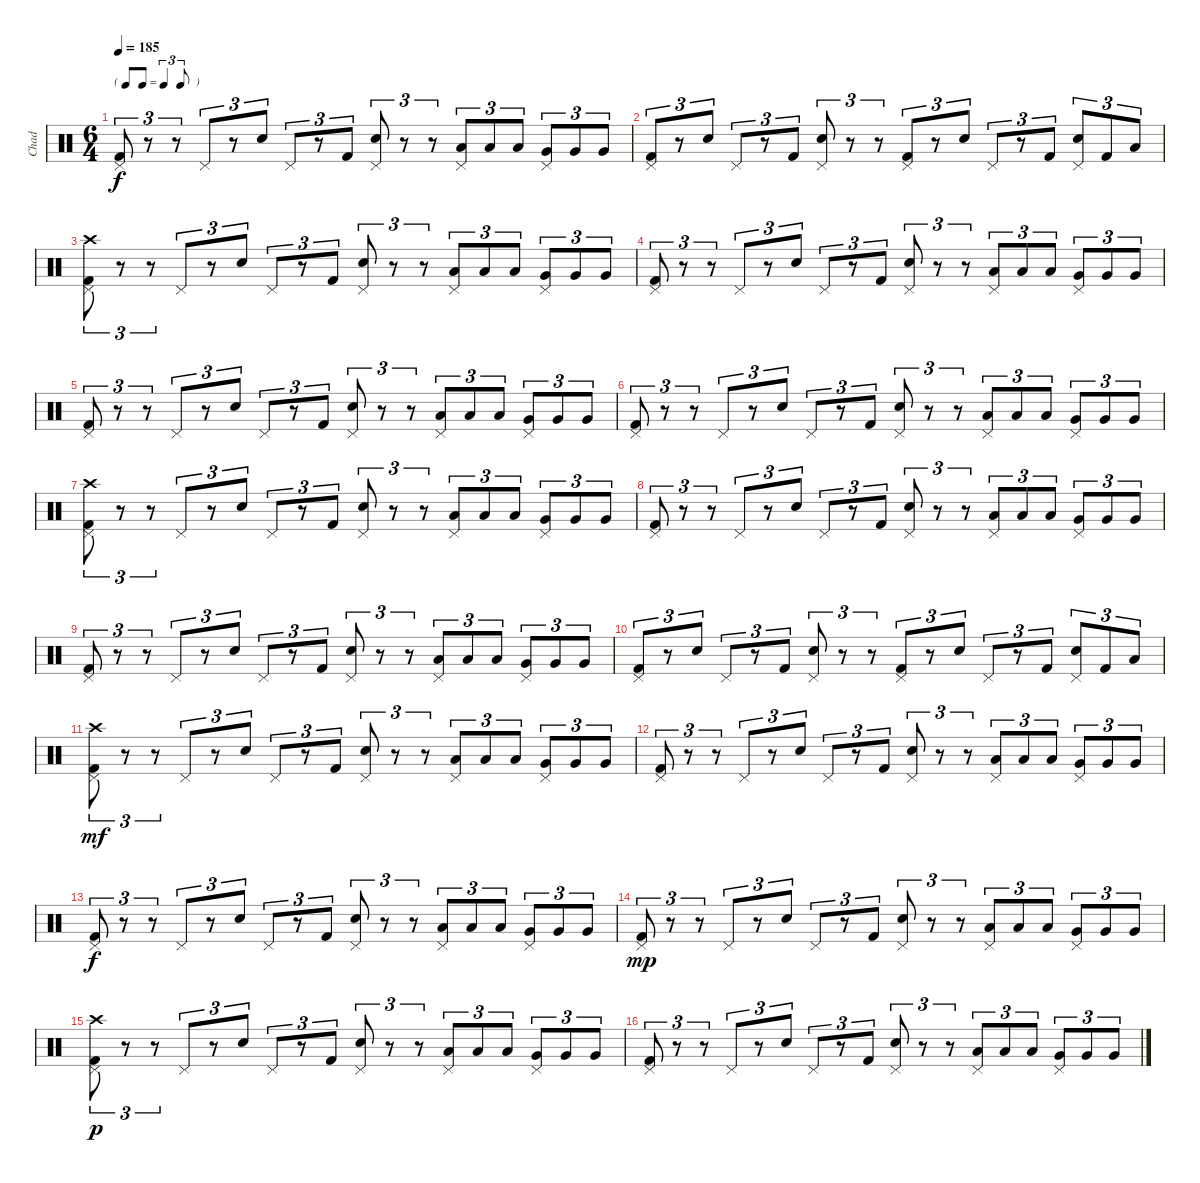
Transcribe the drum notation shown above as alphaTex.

\track ("Chad" "Chad") {instrument percussion}
\staff {score}
\articulation defaults
\ts (6 4)
\tf triplet8th
\tempo 185
\clef neutral
\ks c
("Kick (hit) 2" "Pedal Hi-Hat (hit)").8{tu (3 2) dy f} r.8{tu (3 2)} r.8{tu (3 2)} "Pedal Hi-Hat (hit)".8{tu (3 2)} r.8{tu (3 2)} "Electric Snare (hit)".8{tu (3 2)} "Pedal Hi-Hat (hit)".8{tu (3 2)} r.8{tu (3 2)} "Kick (hit) 2".8{tu (3 2)} ("Electric Snare (hit)" "Pedal Hi-Hat (hit)").8{tu (3 2)} r.8{tu (3 2)} r.8{tu (3 2)} ("Low Tom (hit)" "Pedal Hi-Hat (hit)").8{tu (3 2)} "Low Tom (hit)".8{tu (3 2)} "Low Tom (hit)".8{tu (3 2)} ("Very Low Tom (hit)" "Pedal Hi-Hat (hit)").8{tu (3 2)} "Very Low Tom (hit)".8{tu (3 2)} "Very Low Tom (hit)".8{tu (3 2)} |
("Kick (hit) 2" "Pedal Hi-Hat (hit)").8{tu (3 2)} r.8{tu (3 2)} "Electric Snare (hit)".8{tu (3 2)} "Pedal Hi-Hat (hit)".8{tu (3 2)} r.8{tu (3 2)} "Kick (hit) 2".8{tu (3 2)} ("Electric Snare (hit)" "Pedal Hi-Hat (hit)").8{tu (3 2)} r.8{tu (3 2)} r.8{tu (3 2)} ("Kick (hit) 2" "Pedal Hi-Hat (hit)").8{tu (3 2)} r.8{tu (3 2)} "Electric Snare (hit)".8{tu (3 2)} "Pedal Hi-Hat (hit)".8{tu (3 2)} r.8{tu (3 2)} "Kick (hit) 2".8{tu (3 2)} ("Electric Snare (hit)" "Pedal Hi-Hat (hit)").8{tu (3 2)} "Kick (hit) 2".8{tu (3 2)} "Low Tom (hit)".8{tu (3 2)} |
("Kick (hit) 2" "Pedal Hi-Hat (hit)" "Crash high (hit)").8{tu (3 2)} r.8{tu (3 2)} r.8{tu (3 2)} "Pedal Hi-Hat (hit)".8{tu (3 2)} r.8{tu (3 2)} "Electric Snare (hit)".8{tu (3 2)} "Pedal Hi-Hat (hit)".8{tu (3 2)} r.8{tu (3 2)} "Kick (hit) 2".8{tu (3 2)} ("Electric Snare (hit)" "Pedal Hi-Hat (hit)").8{tu (3 2)} r.8{tu (3 2)} r.8{tu (3 2)} ("Low Tom (hit)" "Pedal Hi-Hat (hit)").8{tu (3 2)} "Low Tom (hit)".8{tu (3 2)} "Low Tom (hit)".8{tu (3 2)} ("Very Low Tom (hit)" "Pedal Hi-Hat (hit)").8{tu (3 2)} "Very Low Tom (hit)".8{tu (3 2)} "Very Low Tom (hit)".8{tu (3 2)} |
("Kick (hit) 2" "Pedal Hi-Hat (hit)").8{tu (3 2)} r.8{tu (3 2)} r.8{tu (3 2)} "Pedal Hi-Hat (hit)".8{tu (3 2)} r.8{tu (3 2)} "Electric Snare (hit)".8{tu (3 2)} "Pedal Hi-Hat (hit)".8{tu (3 2)} r.8{tu (3 2)} "Kick (hit) 2".8{tu (3 2)} ("Electric Snare (hit)" "Pedal Hi-Hat (hit)").8{tu (3 2)} r.8{tu (3 2)} r.8{tu (3 2)} ("Low Tom (hit)" "Pedal Hi-Hat (hit)").8{tu (3 2)} "Low Tom (hit)".8{tu (3 2)} "Low Tom (hit)".8{tu (3 2)} ("Very Low Tom (hit)" "Pedal Hi-Hat (hit)").8{tu (3 2)} "Very Low Tom (hit)".8{tu (3 2)} "Very Low Tom (hit)".8{tu (3 2)} |
("Kick (hit) 2" "Pedal Hi-Hat (hit)").8{tu (3 2)} r.8{tu (3 2)} r.8{tu (3 2)} "Pedal Hi-Hat (hit)".8{tu (3 2)} r.8{tu (3 2)} "Electric Snare (hit)".8{tu (3 2)} "Pedal Hi-Hat (hit)".8{tu (3 2)} r.8{tu (3 2)} "Kick (hit) 2".8{tu (3 2)} ("Electric Snare (hit)" "Pedal Hi-Hat (hit)").8{tu (3 2)} r.8{tu (3 2)} r.8{tu (3 2)} ("Low Tom (hit)" "Pedal Hi-Hat (hit)").8{tu (3 2)} "Low Tom (hit)".8{tu (3 2)} "Low Tom (hit)".8{tu (3 2)} ("Very Low Tom (hit)" "Pedal Hi-Hat (hit)").8{tu (3 2)} "Very Low Tom (hit)".8{tu (3 2)} "Very Low Tom (hit)".8{tu (3 2)} |
("Kick (hit) 2" "Pedal Hi-Hat (hit)").8{tu (3 2)} r.8{tu (3 2)} r.8{tu (3 2)} "Pedal Hi-Hat (hit)".8{tu (3 2)} r.8{tu (3 2)} "Electric Snare (hit)".8{tu (3 2)} "Pedal Hi-Hat (hit)".8{tu (3 2)} r.8{tu (3 2)} "Kick (hit) 2".8{tu (3 2)} ("Electric Snare (hit)" "Pedal Hi-Hat (hit)").8{tu (3 2)} r.8{tu (3 2)} r.8{tu (3 2)} ("Low Tom (hit)" "Pedal Hi-Hat (hit)").8{tu (3 2)} "Low Tom (hit)".8{tu (3 2)} "Low Tom (hit)".8{tu (3 2)} ("Very Low Tom (hit)" "Pedal Hi-Hat (hit)").8{tu (3 2)} "Very Low Tom (hit)".8{tu (3 2)} "Very Low Tom (hit)".8{tu (3 2)} |
("Kick (hit) 2" "Pedal Hi-Hat (hit)" "Crash high (hit)").8{tu (3 2)} r.8{tu (3 2)} r.8{tu (3 2)} "Pedal Hi-Hat (hit)".8{tu (3 2)} r.8{tu (3 2)} "Electric Snare (hit)".8{tu (3 2)} "Pedal Hi-Hat (hit)".8{tu (3 2)} r.8{tu (3 2)} "Kick (hit) 2".8{tu (3 2)} ("Electric Snare (hit)" "Pedal Hi-Hat (hit)").8{tu (3 2)} r.8{tu (3 2)} r.8{tu (3 2)} ("Low Tom (hit)" "Pedal Hi-Hat (hit)").8{tu (3 2)} "Low Tom (hit)".8{tu (3 2)} "Low Tom (hit)".8{tu (3 2)} ("Very Low Tom (hit)" "Pedal Hi-Hat (hit)").8{tu (3 2)} "Very Low Tom (hit)".8{tu (3 2)} "Very Low Tom (hit)".8{tu (3 2)} |
("Kick (hit) 2" "Pedal Hi-Hat (hit)").8{tu (3 2)} r.8{tu (3 2)} r.8{tu (3 2)} "Pedal Hi-Hat (hit)".8{tu (3 2)} r.8{tu (3 2)} "Electric Snare (hit)".8{tu (3 2)} "Pedal Hi-Hat (hit)".8{tu (3 2)} r.8{tu (3 2)} "Kick (hit) 2".8{tu (3 2)} ("Electric Snare (hit)" "Pedal Hi-Hat (hit)").8{tu (3 2)} r.8{tu (3 2)} r.8{tu (3 2)} ("Low Tom (hit)" "Pedal Hi-Hat (hit)").8{tu (3 2)} "Low Tom (hit)".8{tu (3 2)} "Low Tom (hit)".8{tu (3 2)} ("Very Low Tom (hit)" "Pedal Hi-Hat (hit)").8{tu (3 2)} "Very Low Tom (hit)".8{tu (3 2)} "Very Low Tom (hit)".8{tu (3 2)} |
("Kick (hit) 2" "Pedal Hi-Hat (hit)").8{tu (3 2)} r.8{tu (3 2)} r.8{tu (3 2)} "Pedal Hi-Hat (hit)".8{tu (3 2)} r.8{tu (3 2)} "Electric Snare (hit)".8{tu (3 2)} "Pedal Hi-Hat (hit)".8{tu (3 2)} r.8{tu (3 2)} "Kick (hit) 2".8{tu (3 2)} ("Electric Snare (hit)" "Pedal Hi-Hat (hit)").8{tu (3 2)} r.8{tu (3 2)} r.8{tu (3 2)} ("Low Tom (hit)" "Pedal Hi-Hat (hit)").8{tu (3 2)} "Low Tom (hit)".8{tu (3 2)} "Low Tom (hit)".8{tu (3 2)} ("Very Low Tom (hit)" "Pedal Hi-Hat (hit)").8{tu (3 2)} "Very Low Tom (hit)".8{tu (3 2)} "Very Low Tom (hit)".8{tu (3 2)} |
("Kick (hit) 2" "Pedal Hi-Hat (hit)").8{tu (3 2)} r.8{tu (3 2)} "Electric Snare (hit)".8{tu (3 2)} "Pedal Hi-Hat (hit)".8{tu (3 2)} r.8{tu (3 2)} "Kick (hit) 2".8{tu (3 2)} ("Electric Snare (hit)" "Pedal Hi-Hat (hit)").8{tu (3 2)} r.8{tu (3 2)} r.8{tu (3 2)} ("Kick (hit) 2" "Pedal Hi-Hat (hit)").8{tu (3 2)} r.8{tu (3 2)} "Electric Snare (hit)".8{tu (3 2)} "Pedal Hi-Hat (hit)".8{tu (3 2)} r.8{tu (3 2)} "Kick (hit) 2".8{tu (3 2)} ("Electric Snare (hit)" "Pedal Hi-Hat (hit)").8{tu (3 2)} "Kick (hit) 2".8{tu (3 2)} "Low Tom (hit)".8{tu (3 2)} |
("Kick (hit) 2" "Pedal Hi-Hat (hit)" "Crash high (hit)").8{tu (3 2) dy mf} r.8{tu (3 2)} r.8{tu (3 2)} "Pedal Hi-Hat (hit)".8{tu (3 2)} r.8{tu (3 2)} "Electric Snare (hit)".8{tu (3 2)} "Pedal Hi-Hat (hit)".8{tu (3 2)} r.8{tu (3 2)} "Kick (hit) 2".8{tu (3 2)} ("Electric Snare (hit)" "Pedal Hi-Hat (hit)").8{tu (3 2)} r.8{tu (3 2)} r.8{tu (3 2)} ("Low Tom (hit)" "Pedal Hi-Hat (hit)").8{tu (3 2)} "Low Tom (hit)".8{tu (3 2)} "Low Tom (hit)".8{tu (3 2)} ("Very Low Tom (hit)" "Pedal Hi-Hat (hit)").8{tu (3 2)} "Very Low Tom (hit)".8{tu (3 2)} "Very Low Tom (hit)".8{tu (3 2)} |
("Kick (hit) 2" "Pedal Hi-Hat (hit)").8{tu (3 2)} r.8{tu (3 2)} r.8{tu (3 2)} "Pedal Hi-Hat (hit)".8{tu (3 2)} r.8{tu (3 2)} "Electric Snare (hit)".8{tu (3 2)} "Pedal Hi-Hat (hit)".8{tu (3 2)} r.8{tu (3 2)} "Kick (hit) 2".8{tu (3 2)} ("Electric Snare (hit)" "Pedal Hi-Hat (hit)").8{tu (3 2)} r.8{tu (3 2)} r.8{tu (3 2)} ("Low Tom (hit)" "Pedal Hi-Hat (hit)").8{tu (3 2)} "Low Tom (hit)".8{tu (3 2)} "Low Tom (hit)".8{tu (3 2)} ("Very Low Tom (hit)" "Pedal Hi-Hat (hit)").8{tu (3 2)} "Very Low Tom (hit)".8{tu (3 2)} "Very Low Tom (hit)".8{tu (3 2)} |
("Kick (hit) 2" "Pedal Hi-Hat (hit)").8{tu (3 2) dy f} r.8{tu (3 2)} r.8{tu (3 2)} "Pedal Hi-Hat (hit)".8{tu (3 2)} r.8{tu (3 2)} "Electric Snare (hit)".8{tu (3 2)} "Pedal Hi-Hat (hit)".8{tu (3 2)} r.8{tu (3 2)} "Kick (hit) 2".8{tu (3 2)} ("Electric Snare (hit)" "Pedal Hi-Hat (hit)").8{tu (3 2)} r.8{tu (3 2)} r.8{tu (3 2)} ("Low Tom (hit)" "Pedal Hi-Hat (hit)").8{tu (3 2)} "Low Tom (hit)".8{tu (3 2)} "Low Tom (hit)".8{tu (3 2)} ("Very Low Tom (hit)" "Pedal Hi-Hat (hit)").8{tu (3 2)} "Very Low Tom (hit)".8{tu (3 2)} "Very Low Tom (hit)".8{tu (3 2)} |
("Kick (hit) 2" "Pedal Hi-Hat (hit)").8{tu (3 2) dy mp} r.8{tu (3 2)} r.8{tu (3 2)} "Pedal Hi-Hat (hit)".8{tu (3 2)} r.8{tu (3 2)} "Electric Snare (hit)".8{tu (3 2)} "Pedal Hi-Hat (hit)".8{tu (3 2)} r.8{tu (3 2)} "Kick (hit) 2".8{tu (3 2)} ("Electric Snare (hit)" "Pedal Hi-Hat (hit)").8{tu (3 2)} r.8{tu (3 2)} r.8{tu (3 2)} ("Low Tom (hit)" "Pedal Hi-Hat (hit)").8{tu (3 2)} "Low Tom (hit)".8{tu (3 2)} "Low Tom (hit)".8{tu (3 2)} ("Very Low Tom (hit)" "Pedal Hi-Hat (hit)").8{tu (3 2)} "Very Low Tom (hit)".8{tu (3 2)} "Very Low Tom (hit)".8{tu (3 2)} |
("Kick (hit) 2" "Pedal Hi-Hat (hit)" "Crash high (hit)").8{tu (3 2) dy p} r.8{tu (3 2)} r.8{tu (3 2)} "Pedal Hi-Hat (hit)".8{tu (3 2)} r.8{tu (3 2)} "Electric Snare (hit)".8{tu (3 2)} "Pedal Hi-Hat (hit)".8{tu (3 2)} r.8{tu (3 2)} "Kick (hit) 2".8{tu (3 2)} ("Electric Snare (hit)" "Pedal Hi-Hat (hit)").8{tu (3 2)} r.8{tu (3 2)} r.8{tu (3 2)} ("Low Tom (hit)" "Pedal Hi-Hat (hit)").8{tu (3 2)} "Low Tom (hit)".8{tu (3 2)} "Low Tom (hit)".8{tu (3 2)} ("Very Low Tom (hit)" "Pedal Hi-Hat (hit)").8{tu (3 2)} "Very Low Tom (hit)".8{tu (3 2)} "Very Low Tom (hit)".8{tu (3 2)} |
("Kick (hit) 2" "Pedal Hi-Hat (hit)").8{tu (3 2)} r.8{tu (3 2)} r.8{tu (3 2)} "Pedal Hi-Hat (hit)".8{tu (3 2)} r.8{tu (3 2)} "Electric Snare (hit)".8{tu (3 2)} "Pedal Hi-Hat (hit)".8{tu (3 2)} r.8{tu (3 2)} "Kick (hit) 2".8{tu (3 2)} ("Electric Snare (hit)" "Pedal Hi-Hat (hit)").8{tu (3 2)} r.8{tu (3 2)} r.8{tu (3 2)} ("Low Tom (hit)" "Pedal Hi-Hat (hit)").8{tu (3 2)} "Low Tom (hit)".8{tu (3 2)} "Low Tom (hit)".8{tu (3 2)} ("Very Low Tom (hit)" "Pedal Hi-Hat (hit)").8{tu (3 2)} "Very Low Tom (hit)".8{tu (3 2)} "Very Low Tom (hit)".8{tu (3 2)}
